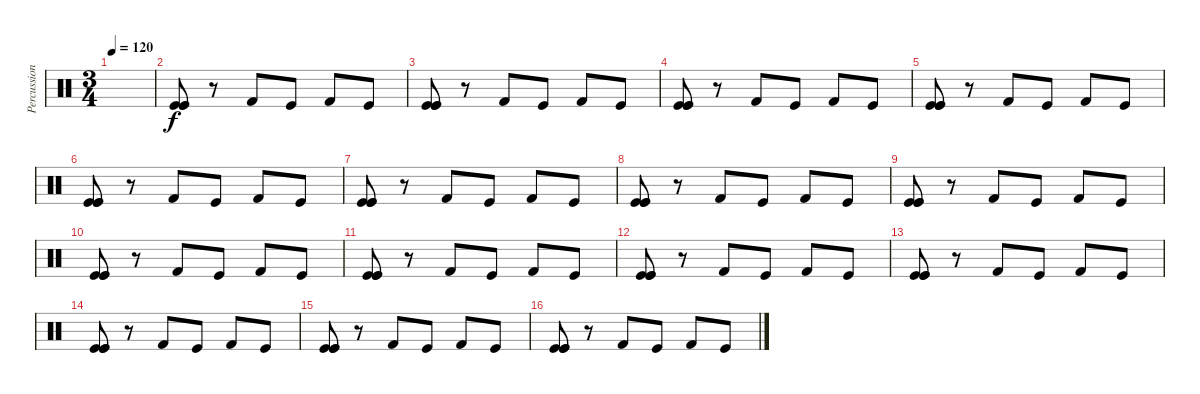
\track ("Percussions" "Percussion") {instrument percussion}
\staff {score}
\articulation defaults
\ts (3 4)
\tempo 120
\clef neutral
\ks c
|
("Kick (hit)" "Kick (hit)" "Kick (hit)").8 r.8 "Kick (hit) 2".8 "Kick (hit)".8 "Kick (hit) 2".8 "Kick (hit)".8 |
("Kick (hit)" "Kick (hit)" "Kick (hit)").8 r.8 "Kick (hit) 2".8 "Kick (hit)".8 "Kick (hit) 2".8 "Kick (hit)".8 |
("Kick (hit)" "Kick (hit)" "Kick (hit)").8 r.8 "Kick (hit) 2".8 "Kick (hit)".8 "Kick (hit) 2".8 "Kick (hit)".8 |
("Kick (hit)" "Kick (hit)" "Kick (hit)").8 r.8 "Kick (hit) 2".8 "Kick (hit)".8 "Kick (hit) 2".8 "Kick (hit)".8 |
("Kick (hit)" "Kick (hit)" "Kick (hit)").8 r.8 "Kick (hit) 2".8 "Kick (hit)".8 "Kick (hit) 2".8 "Kick (hit)".8 |
("Kick (hit)" "Kick (hit)" "Kick (hit)").8 r.8 "Kick (hit) 2".8 "Kick (hit)".8 "Kick (hit) 2".8 "Kick (hit)".8 |
("Kick (hit)" "Kick (hit)" "Kick (hit)").8 r.8 "Kick (hit) 2".8 "Kick (hit)".8 "Kick (hit) 2".8 "Kick (hit)".8 |
("Kick (hit)" "Kick (hit)" "Kick (hit)").8 r.8 "Kick (hit) 2".8 "Kick (hit)".8 "Kick (hit) 2".8 "Kick (hit)".8 |
("Kick (hit)" "Kick (hit)" "Kick (hit)").8 r.8 "Kick (hit) 2".8 "Kick (hit)".8 "Kick (hit) 2".8 "Kick (hit)".8 |
("Kick (hit)" "Kick (hit)" "Kick (hit)").8 r.8 "Kick (hit) 2".8 "Kick (hit)".8 "Kick (hit) 2".8 "Kick (hit)".8 |
("Kick (hit)" "Kick (hit)" "Kick (hit)").8 r.8 "Kick (hit) 2".8 "Kick (hit)".8 "Kick (hit) 2".8 "Kick (hit)".8 |
("Kick (hit)" "Kick (hit)" "Kick (hit)").8 r.8 "Kick (hit) 2".8 "Kick (hit)".8 "Kick (hit) 2".8 "Kick (hit)".8 |
("Kick (hit)" "Kick (hit)" "Kick (hit)").8 r.8 "Kick (hit) 2".8 "Kick (hit)".8 "Kick (hit) 2".8 "Kick (hit)".8 |
("Kick (hit)" "Kick (hit)" "Kick (hit)").8 r.8 "Kick (hit) 2".8 "Kick (hit)".8 "Kick (hit) 2".8 "Kick (hit)".8 |
("Kick (hit)" "Kick (hit)" "Kick (hit)").8 r.8 "Kick (hit) 2".8 "Kick (hit)".8 "Kick (hit) 2".8 "Kick (hit)".8
